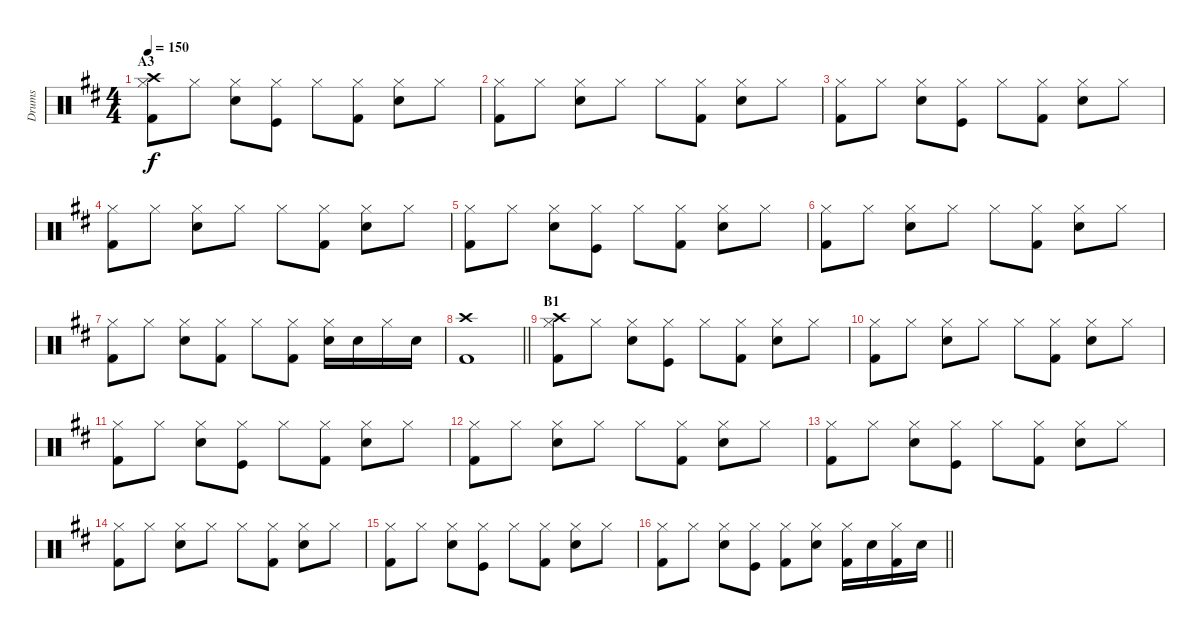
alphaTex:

\track ("Drums" "Drums") {instrument percussion}
\staff {score}
\articulation defaults
\ts (4 4)
\section ("" "A3")
\tempo 150
\clef neutral
\ks d
("Hi-Hat (closed)" "Crash high (hit)" "Kick (hit) 2").8{dy f} "Hi-Hat (closed)".8 ("Hi-Hat (closed)" "Electric Snare (hit)").8 ("Hi-Hat (closed)" "Kick (hit)").8 "Hi-Hat (closed)".8 ("Hi-Hat (closed)" "Kick (hit) 2").8 ("Hi-Hat (closed)" "Electric Snare (hit)").8 "Hi-Hat (closed)".8 |
("Hi-Hat (closed)" "Kick (hit) 2").8 "Hi-Hat (closed)".8 ("Hi-Hat (closed)" "Electric Snare (hit)").8 "Hi-Hat (closed)".8 "Hi-Hat (closed)".8 ("Hi-Hat (closed)" "Kick (hit) 2").8 ("Hi-Hat (closed)" "Electric Snare (hit)").8 "Hi-Hat (closed)".8 |
("Hi-Hat (closed)" "Kick (hit) 2").8 "Hi-Hat (closed)".8 ("Hi-Hat (closed)" "Electric Snare (hit)").8 ("Hi-Hat (closed)" "Kick (hit)").8 "Hi-Hat (closed)".8 ("Hi-Hat (closed)" "Kick (hit) 2").8 ("Hi-Hat (closed)" "Electric Snare (hit)").8 "Hi-Hat (closed)".8 |
("Hi-Hat (closed)" "Kick (hit) 2").8 "Hi-Hat (closed)".8 ("Hi-Hat (closed)" "Electric Snare (hit)").8 "Hi-Hat (closed)".8 "Hi-Hat (closed)".8 ("Hi-Hat (closed)" "Kick (hit) 2").8 ("Hi-Hat (closed)" "Electric Snare (hit)").8 "Hi-Hat (closed)".8 |
("Hi-Hat (closed)" "Kick (hit) 2").8 "Hi-Hat (closed)".8 ("Hi-Hat (closed)" "Electric Snare (hit)").8 ("Hi-Hat (closed)" "Kick (hit)").8 "Hi-Hat (closed)".8 ("Hi-Hat (closed)" "Kick (hit) 2").8 ("Hi-Hat (closed)" "Electric Snare (hit)").8 "Hi-Hat (closed)".8 |
("Hi-Hat (closed)" "Kick (hit) 2").8 "Hi-Hat (closed)".8 ("Hi-Hat (closed)" "Electric Snare (hit)").8 "Hi-Hat (closed)".8 "Hi-Hat (closed)".8 ("Hi-Hat (closed)" "Kick (hit) 2").8 ("Hi-Hat (closed)" "Electric Snare (hit)").8 "Hi-Hat (closed)".8 |
("Hi-Hat (closed)" "Kick (hit) 2").8 "Hi-Hat (closed)".8 ("Hi-Hat (closed)" "Electric Snare (hit)").8 ("Hi-Hat (closed)" "Kick (hit) 2").8 "Hi-Hat (closed)".8 ("Hi-Hat (closed)" "Kick (hit) 2").8 ("Hi-Hat (closed)" "Electric Snare (hit)").16 "Electric Snare (hit)".16 "Hi-Hat (closed)".16 "Electric Snare (hit)".16 |
\barLineRight lightlight
("Crash high (hit)" "Kick (hit) 2").1 |
\section ("" "B1")
("Hi-Hat (closed)" "Crash high (hit)" "Kick (hit) 2").8 "Hi-Hat (closed)".8 ("Hi-Hat (closed)" "Electric Snare (hit)").8 ("Hi-Hat (closed)" "Kick (hit)").8 "Hi-Hat (closed)".8 ("Hi-Hat (closed)" "Kick (hit) 2").8 ("Hi-Hat (closed)" "Electric Snare (hit)").8 "Hi-Hat (closed)".8 |
("Hi-Hat (closed)" "Kick (hit) 2").8 "Hi-Hat (closed)".8 ("Hi-Hat (closed)" "Electric Snare (hit)").8 "Hi-Hat (closed)".8 "Hi-Hat (closed)".8 ("Hi-Hat (closed)" "Kick (hit) 2").8 ("Hi-Hat (closed)" "Electric Snare (hit)").8 "Hi-Hat (closed)".8 |
("Hi-Hat (closed)" "Kick (hit) 2").8 "Hi-Hat (closed)".8 ("Hi-Hat (closed)" "Electric Snare (hit)").8 ("Hi-Hat (closed)" "Kick (hit)").8 "Hi-Hat (closed)".8 ("Hi-Hat (closed)" "Kick (hit) 2").8 ("Hi-Hat (closed)" "Electric Snare (hit)").8 "Hi-Hat (closed)".8 |
("Hi-Hat (closed)" "Kick (hit) 2").8 "Hi-Hat (closed)".8 ("Hi-Hat (closed)" "Electric Snare (hit)").8 "Hi-Hat (closed)".8 "Hi-Hat (closed)".8 ("Hi-Hat (closed)" "Kick (hit) 2").8 ("Hi-Hat (closed)" "Electric Snare (hit)").8 "Hi-Hat (closed)".8 |
("Hi-Hat (closed)" "Kick (hit) 2").8 "Hi-Hat (closed)".8 ("Hi-Hat (closed)" "Electric Snare (hit)").8 ("Hi-Hat (closed)" "Kick (hit)").8 "Hi-Hat (closed)".8 ("Hi-Hat (closed)" "Kick (hit) 2").8 ("Hi-Hat (closed)" "Electric Snare (hit)").8 "Hi-Hat (closed)".8 |
("Hi-Hat (closed)" "Kick (hit) 2").8 "Hi-Hat (closed)".8 ("Hi-Hat (closed)" "Electric Snare (hit)").8 "Hi-Hat (closed)".8 "Hi-Hat (closed)".8 ("Hi-Hat (closed)" "Kick (hit) 2").8 ("Hi-Hat (closed)" "Electric Snare (hit)").8 "Hi-Hat (closed)".8 |
("Hi-Hat (closed)" "Kick (hit) 2").8 "Hi-Hat (closed)".8 ("Hi-Hat (closed)" "Electric Snare (hit)").8 ("Hi-Hat (closed)" "Kick (hit)").8 "Hi-Hat (closed)".8 ("Hi-Hat (closed)" "Kick (hit) 2").8 ("Hi-Hat (closed)" "Electric Snare (hit)").8 "Hi-Hat (closed)".8 |
\barLineRight lightlight
("Hi-Hat (closed)" "Kick (hit) 2").8 "Hi-Hat (closed)".8 ("Hi-Hat (closed)" "Electric Snare (hit)").8 ("Hi-Hat (closed)" "Kick (hit)").8 ("Hi-Hat (closed)" "Kick (hit) 2").8 ("Hi-Hat (closed)" "Electric Snare (hit)").8 ("Hi-Hat (closed)" "Kick (hit) 2").16 "Electric Snare (hit)".16 ("Hi-Hat (closed)" "Kick (hit) 2").16 "Electric Snare (hit)".16
